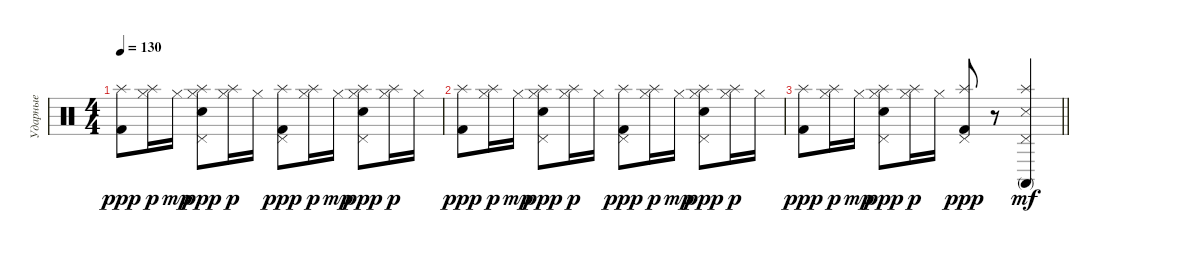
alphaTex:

\track ("Ударные" "Ударные") {instrument percussion bank 17}
\staff {score}
\articulation defaults
\ts (4 4)
\tempo 130
\clef neutral
\ks c
("Kick (hit) 2" "Splash (hit)").8{dy ppp} ("Hi-Hat (closed)" "Splash (hit)").16{dy p} "Hi-Hat (closed)".16{dy mp} ("Snare (hit) 2" "Pedal Hi-Hat (hit)" "Hi-Hat (closed)" "Splash (hit)").8{dy ppp} ("Hi-Hat (closed)" "Splash (hit)").16{dy p} "Hi-Hat (closed)".16 ("Kick (hit) 2" "Pedal Hi-Hat (hit)" "Splash (hit)").8{dy ppp} ("Hi-Hat (closed)" "Splash (hit)").16{dy p} "Hi-Hat (closed)".16{dy mp} ("Snare (hit) 2" "Pedal Hi-Hat (hit)" "Hi-Hat (closed)" "Splash (hit)").8{dy ppp} ("Hi-Hat (closed)" "Splash (hit)").16{dy p} "Hi-Hat (closed)".16 |
("Kick (hit) 2" "Splash (hit)").8{dy ppp} ("Hi-Hat (closed)" "Splash (hit)").16{dy p} "Hi-Hat (closed)".16{dy mp} ("Snare (hit) 2" "Pedal Hi-Hat (hit)" "Hi-Hat (closed)" "Splash (hit)").8{dy ppp} ("Hi-Hat (closed)" "Splash (hit)").16{dy p} "Hi-Hat (closed)".16 ("Kick (hit) 2" "Pedal Hi-Hat (hit)" "Splash (hit)").8{dy ppp} ("Hi-Hat (closed)" "Splash (hit)").16{dy p} "Hi-Hat (closed)".16{dy mp} ("Snare (hit) 2" "Pedal Hi-Hat (hit)" "Hi-Hat (closed)" "Splash (hit)").8{dy ppp} ("Hi-Hat (closed)" "Splash (hit)").16{dy p} "Hi-Hat (closed)".16 |
\barLineRight lightlight
("Kick (hit) 2" "Splash (hit)").8{dy ppp} ("Hi-Hat (closed)" "Splash (hit)").16{dy p} "Hi-Hat (closed)".16{dy mp} ("Snare (hit) 2" "Pedal Hi-Hat (hit)" "Hi-Hat (closed)" "Splash (hit)").8{dy ppp} ("Hi-Hat (closed)" "Splash (hit)").16{dy p} "Hi-Hat (closed)".16 ("Kick (hit) 2" "Pedal Hi-Hat (hit)" "Splash (hit)").8{dy ppp} r.8 ("Snare (side stick) 3" "Conga high (mute)" "Splash (hit)" "Pedal Hi-Hat (hit)").4{dy mf}
